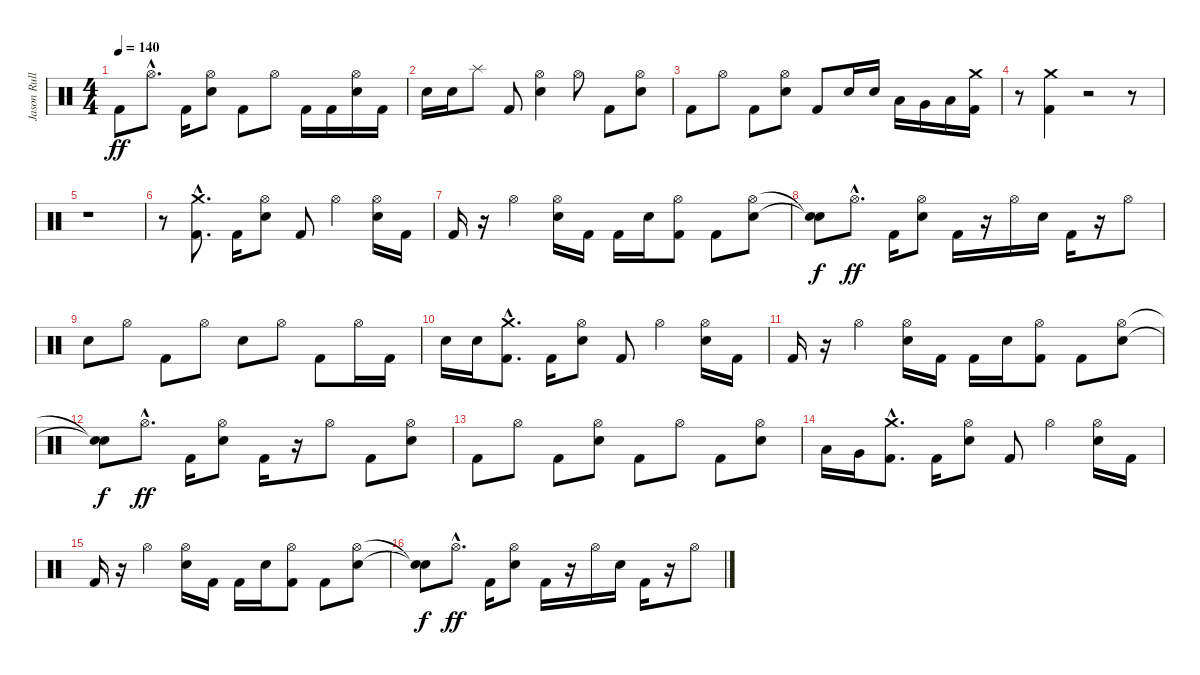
\track ("Jason Rullo" "Jason Rull") {instrument percussion}
\staff {score}
\articulation defaults
\ts (4 4)
\tempo 140
\clef neutral
\ks c "Kick (hit) 2".8{dy ff} "Hi-Hat (open)"{hac}.8{d} "Kick (hit) 2".16
("Electric Snare (hit)" "Hi-Hat (open)").8 "Kick (hit) 2".8 "Hi-Hat (open)".8 "Kick (hit) 2".16 "Kick (hit) 2".16 ("Electric Snare (hit)" "Hi-Hat (open)").16 "Kick (hit) 2".16 |
"Electric Snare (hit)".16 "Electric Snare (hit)".16 "Splash (hit)".8 "Kick (hit) 2".8 ("Electric Snare (hit)" "Hi-Hat (open)").4 "Hi-Hat (open)".8 "Kick (hit) 2".8 ("Electric Snare (hit)" "Hi-Hat (open)").8 |
"Kick (hit) 2".8 "Hi-Hat (open)".8 "Kick (hit) 2".8 ("Electric Snare (hit)" "Hi-Hat (open)").8 "Kick (hit) 2".8 "Electric Snare (hit)".16 "Electric Snare (hit)".16 "Low Tom (hit)".16 "Very Low Tom (hit)".16 "Low Floor Tom (hit)".16 ("Crash medium (hit)" "Kick (hit) 2").16 |
r.8 ("Crash medium (hit)" "Kick (hit) 2").4 r.2 r.8 |
r.1 |
r.8 ("Crash medium (hit)"{hac} "Kick (hit) 2"{hac}).8{d} "Kick (hit) 2".16 ("Electric Snare (hit)" "Hi-Hat (open)").8 "Kick (hit) 2".8 "Hi-Hat (open)".4 ("Electric Snare (hit)" "Hi-Hat (open)").16 "Kick (hit) 2".16 |
"Kick (hit) 2".16 r.16 "Hi-Hat (open)".4 ("Electric Snare (hit)" "Hi-Hat (open)").16 "Kick (hit) 2".16 "Kick (hit) 2".16 "Electric Snare (hit)".16 ("Kick (hit) 2" "Hi-Hat (open)").8 "Kick (hit) 2".8 ("Electric Snare (hit)" "Hi-Hat (open)").8 |
("Snare (hit)"{t} "Snare (hit)"{t}).8{dy f} "Hi-Hat (open)"{hac}.8{d dy ff} "Kick (hit) 2".16 ("Electric Snare (hit)" "Hi-Hat (open)").8 "Kick (hit) 2".16 r.16 "Hi-Hat (open)".16 "Electric Snare (hit)".16 "Kick (hit) 2".16 r.16 "Hi-Hat (open)".8 |
"Electric Snare (hit)".8 "Hi-Hat (open)".8 "Kick (hit) 2".8 "Hi-Hat (open)".8 "Electric Snare (hit)".8 "Hi-Hat (open)".8 "Kick (hit) 2".8 "Hi-Hat (open)".16 "Kick (hit) 2".16 |
"Electric Snare (hit)".16 "Electric Snare (hit)".16 ("Crash medium (hit)"{hac} "Kick (hit) 2"{hac}).8{d} "Kick (hit) 2".16 ("Electric Snare (hit)" "Hi-Hat (open)").8 "Kick (hit) 2".8 "Hi-Hat (open)".4 ("Electric Snare (hit)" "Hi-Hat (open)").16 "Kick (hit) 2".16 |
"Kick (hit) 2".16 r.16 "Hi-Hat (open)".4 ("Electric Snare (hit)" "Hi-Hat (open)").16 "Kick (hit) 2".16 "Kick (hit) 2".16 "Electric Snare (hit)".16 ("Hi-Hat (open)" "Kick (hit) 2").8 "Kick (hit) 2".8 ("Electric Snare (hit)" "Hi-Hat (open)").8 |
("Snare (hit)"{t} "Snare (hit)"{t}).8{dy f} "Hi-Hat (open)"{hac}.8{d dy ff} "Kick (hit) 2".16 ("Electric Snare (hit)" "Hi-Hat (open)").8 "Kick (hit) 2".16 r.16 "Hi-Hat (open)".8 "Kick (hit) 2".8 ("Electric Snare (hit)" "Hi-Hat (open)").8 |
"Kick (hit) 2".8 "Hi-Hat (open)".8 "Kick (hit) 2".8 ("Electric Snare (hit)" "Hi-Hat (open)").8 "Kick (hit) 2".8 "Hi-Hat (open)".8 "Kick (hit) 2".8 ("Electric Snare (hit)" "Hi-Hat (open)").8 |
"Low Tom (hit)".16 "Very Low Tom (hit)".16 ("Crash medium (hit)"{hac} "Kick (hit) 2"{hac}).8{d} "Kick (hit) 2".16 ("Electric Snare (hit)" "Hi-Hat (open)").8 "Kick (hit) 2".8 "Hi-Hat (open)".4 ("Electric Snare (hit)" "Hi-Hat (open)").16 "Kick (hit) 2".16 |
"Kick (hit) 2".16 r.16 "Hi-Hat (open)".4 ("Electric Snare (hit)" "Hi-Hat (open)").16 "Kick (hit) 2".16 "Kick (hit) 2".16 "Electric Snare (hit)".16 ("Hi-Hat (open)" "Kick (hit) 2").8 "Kick (hit) 2".8 ("Electric Snare (hit)" "Hi-Hat (open)").8 |
("Snare (hit)"{t} "Snare (hit)"{t}).8{dy f} "Hi-Hat (open)"{hac}.8{d dy ff} "Kick (hit) 2".16 ("Electric Snare (hit)" "Hi-Hat (open)").8 "Kick (hit) 2".16 r.16 "Hi-Hat (open)".16 "Electric Snare (hit)".16 "Kick (hit) 2".16 r.16 "Hi-Hat (open)".8
